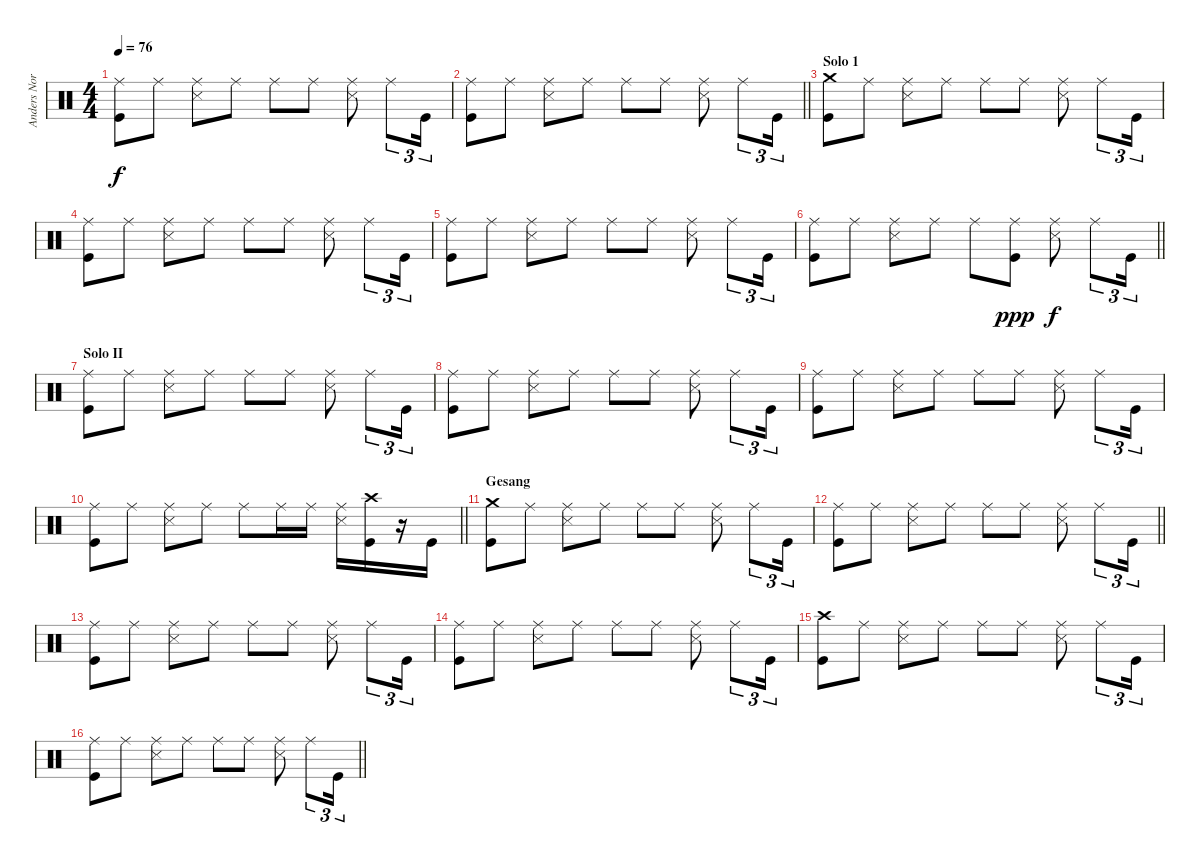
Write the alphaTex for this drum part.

\track ("Anders Nordin - Drums" "Anders Nor") {instrument percussion}
\staff {score}
\articulation defaults
\ts (4 4)
\tempo 76
\clef neutral
\ks c
("Ride (middle)" "Kick (hit)").8{dy f} "Ride (middle)".8 ("Ride (middle)" "Snare (side stick) 3").8 "Ride (middle)".8 "Ride (middle)".8 "Ride (middle)".8 ("Ride (middle)" "Snare (side stick) 3").8 "Ride (middle)".8{tu (3 2)} "Kick (hit)".16{tu (3 2)} |
\barLineRight lightlight
("Ride (middle)" "Kick (hit)").8 "Ride (middle)".8 ("Ride (middle)" "Snare (side stick) 3").8 "Ride (middle)".8 "Ride (middle)".8 "Ride (middle)".8 ("Ride (middle)" "Snare (side stick) 3").8 "Ride (middle)".8{tu (3 2)} "Kick (hit)".16{tu (3 2)} |
\section ("" "Solo 1")
("Crash medium (hit)" "Kick (hit)").8 "Ride (middle)".8 ("Ride (middle)" "Snare (side stick) 3").8 "Ride (middle)".8 "Ride (middle)".8 "Ride (middle)".8 ("Ride (middle)" "Snare (side stick) 3").8 "Ride (middle)".8{tu (3 2)} "Kick (hit)".16{tu (3 2)} |
("Ride (middle)" "Kick (hit)").8 "Ride (middle)".8 ("Ride (middle)" "Snare (side stick) 3").8 "Ride (middle)".8 "Ride (middle)".8 "Ride (middle)".8 ("Ride (middle)" "Snare (side stick) 3").8 "Ride (middle)".8{tu (3 2)} "Kick (hit)".16{tu (3 2)} |
("Ride (middle)" "Kick (hit)").8 "Ride (middle)".8 ("Ride (middle)" "Snare (side stick) 3").8 "Ride (middle)".8 "Ride (middle)".8 "Ride (middle)".8 ("Ride (middle)" "Snare (side stick) 3").8 "Ride (middle)".8{tu (3 2)} "Kick (hit)".16{tu (3 2)} |
\barLineRight lightlight
("Ride (middle)" "Kick (hit)").8 "Ride (middle)".8 ("Ride (middle)" "Snare (side stick) 3").8 "Ride (middle)".8 "Ride (middle)".8 ("Ride (middle)" "Kick (hit)").8{dy ppp} ("Ride (middle)" "Snare (side stick) 3").8{dy f} "Ride (middle)".8{tu (3 2)} "Kick (hit)".16{tu (3 2)} |
\section ("" "Solo II")
("Ride (middle)" "Kick (hit)").8 "Ride (middle)".8 ("Ride (middle)" "Snare (side stick) 3").8 "Ride (middle)".8 "Ride (middle)".8 "Ride (middle)".8 ("Ride (middle)" "Snare (side stick) 3").8 "Ride (middle)".8{tu (3 2)} "Kick (hit)".16{tu (3 2)} |
("Ride (middle)" "Kick (hit)").8 "Ride (middle)".8 ("Ride (middle)" "Snare (side stick) 3").8 "Ride (middle)".8 "Ride (middle)".8 "Ride (middle)".8 ("Ride (middle)" "Snare (side stick) 3").8 "Ride (middle)".8{tu (3 2)} "Kick (hit)".16{tu (3 2)} |
("Ride (middle)" "Kick (hit)").8 "Ride (middle)".8 ("Ride (middle)" "Snare (side stick) 3").8 "Ride (middle)".8 "Ride (middle)".8 "Ride (middle)".8 ("Ride (middle)" "Snare (side stick) 3").8 "Ride (middle)".8{tu (3 2)} "Kick (hit)".16{tu (3 2)} |
\barLineRight lightlight
("Ride (middle)" "Kick (hit)").8 "Ride (middle)".8 ("Ride (middle)" "Snare (side stick) 3").8 "Ride (middle)".8 "Ride (middle)".8 "Ride (middle)".16 "Ride (middle)".16 ("Ride (middle)" "Snare (side stick) 3").16 ("Kick (hit)" "Crash high (hit)").16 r.16 "Kick (hit)".16 |
\section ("" "Gesang")
("Crash medium (hit)" "Kick (hit)").8 "Ride (middle)".8 ("Ride (middle)" "Snare (side stick) 3").8 "Ride (middle)".8 "Ride (middle)".8 "Ride (middle)".8 ("Ride (middle)" "Snare (side stick) 3").8 "Ride (middle)".8{tu (3 2)} "Kick (hit)".16{tu (3 2)} |
\barLineRight lightlight
("Ride (middle)" "Kick (hit)").8 "Ride (middle)".8 ("Ride (middle)" "Snare (side stick) 3").8 "Ride (middle)".8 "Ride (middle)".8 "Ride (middle)".8 ("Ride (middle)" "Snare (side stick) 3").8 "Ride (middle)".8{tu (3 2)} "Kick (hit)".16{tu (3 2)} |
("Ride (middle)" "Kick (hit)").8 "Ride (middle)".8 ("Ride (middle)" "Snare (side stick) 3").8 "Ride (middle)".8 "Ride (middle)".8 "Ride (middle)".8 ("Ride (middle)" "Snare (side stick) 3").8 "Ride (middle)".8{tu (3 2)} "Kick (hit)".16{tu (3 2)} |
("Ride (middle)" "Kick (hit)").8 "Ride (middle)".8 ("Ride (middle)" "Snare (side stick) 3").8 "Ride (middle)".8 "Ride (middle)".8 "Ride (middle)".8 ("Ride (middle)" "Snare (side stick) 3").8 "Ride (middle)".8{tu (3 2)} "Kick (hit)".16{tu (3 2)} |
("Crash high (hit)" "Kick (hit)").8 "Ride (middle)".8 ("Ride (middle)" "Snare (side stick) 3").8 "Ride (middle)".8 "Ride (middle)".8 "Ride (middle)".8 ("Ride (middle)" "Snare (side stick) 3").8 "Ride (middle)".8{tu (3 2)} "Kick (hit)".16{tu (3 2)} |
\barLineRight lightlight
("Ride (middle)" "Kick (hit)").8 "Ride (middle)".8 ("Ride (middle)" "Snare (side stick) 3").8 "Ride (middle)".8 "Ride (middle)".8 "Ride (middle)".8 ("Ride (middle)" "Snare (side stick) 3").8 "Ride (middle)".8{tu (3 2)} "Kick (hit)".16{tu (3 2)}
